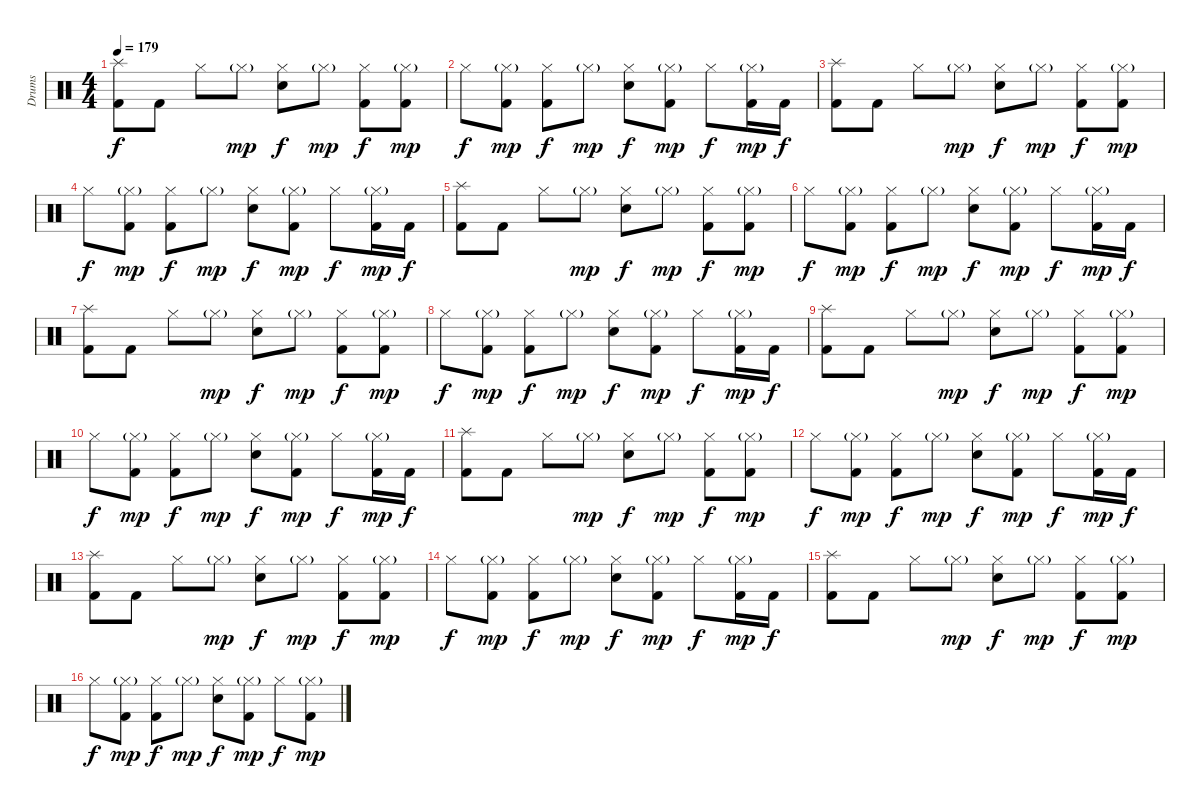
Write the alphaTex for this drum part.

\track ("Drums" "Drums") {instrument percussion}
\staff {score}
\articulation defaults
\ts (4 4)
\tempo 179
\clef neutral
\ks c
("Splash (hit)" "Kick (hit) 2").8{dy f} "Kick (hit) 2".8 "Hi-Hat (closed)".8 "Hi-Hat (closed)"{g}.8{dy mp} ("Hi-Hat (closed)" "Snare (hit) 2").8{dy f} "Hi-Hat (closed)"{g}.8{dy mp} ("Hi-Hat (closed)" "Kick (hit) 2").8{dy f} ("Hi-Hat (closed)"{g} "Kick (hit) 2").8{dy mp} |
"Hi-Hat (closed)".8{dy f} ("Hi-Hat (closed)"{g} "Kick (hit) 2").8{dy mp} ("Hi-Hat (closed)" "Kick (hit) 2").8{dy f} "Hi-Hat (closed)"{g}.8{dy mp} ("Hi-Hat (closed)" "Snare (hit) 2").8{dy f} ("Hi-Hat (closed)"{g} "Kick (hit) 2").8{dy mp} "Hi-Hat (closed)".8{dy f} ("Hi-Hat (closed)"{g} "Kick (hit) 2").16{dy mp} "Kick (hit) 2".16{dy f} |
("Splash (hit)" "Kick (hit) 2").8 "Kick (hit) 2".8 "Hi-Hat (closed)".8 "Hi-Hat (closed)"{g}.8{dy mp} ("Hi-Hat (closed)" "Snare (hit) 2").8{dy f} "Hi-Hat (closed)"{g}.8{dy mp} ("Hi-Hat (closed)" "Kick (hit) 2").8{dy f} ("Hi-Hat (closed)"{g} "Kick (hit) 2").8{dy mp} |
"Hi-Hat (closed)".8{dy f} ("Hi-Hat (closed)"{g} "Kick (hit) 2").8{dy mp} ("Hi-Hat (closed)" "Kick (hit) 2").8{dy f} "Hi-Hat (closed)"{g}.8{dy mp} ("Hi-Hat (closed)" "Snare (hit) 2").8{dy f} ("Hi-Hat (closed)"{g} "Kick (hit) 2").8{dy mp} "Hi-Hat (closed)".8{dy f} ("Hi-Hat (closed)"{g} "Kick (hit) 2").16{dy mp} "Kick (hit) 2".16{dy f} |
("Splash (hit)" "Kick (hit) 2").8 "Kick (hit) 2".8 "Hi-Hat (closed)".8 "Hi-Hat (closed)"{g}.8{dy mp} ("Hi-Hat (closed)" "Snare (hit) 2").8{dy f} "Hi-Hat (closed)"{g}.8{dy mp} ("Hi-Hat (closed)" "Kick (hit) 2").8{dy f} ("Hi-Hat (closed)"{g} "Kick (hit) 2").8{dy mp} |
"Hi-Hat (closed)".8{dy f} ("Hi-Hat (closed)"{g} "Kick (hit) 2").8{dy mp} ("Hi-Hat (closed)" "Kick (hit) 2").8{dy f} "Hi-Hat (closed)"{g}.8{dy mp} ("Hi-Hat (closed)" "Snare (hit) 2").8{dy f} ("Hi-Hat (closed)"{g} "Kick (hit) 2").8{dy mp} "Hi-Hat (closed)".8{dy f} ("Hi-Hat (closed)"{g} "Kick (hit) 2").16{dy mp} "Kick (hit) 2".16{dy f} |
("Splash (hit)" "Kick (hit) 2").8 "Kick (hit) 2".8 "Hi-Hat (closed)".8 "Hi-Hat (closed)"{g}.8{dy mp} ("Hi-Hat (closed)" "Snare (hit) 2").8{dy f} "Hi-Hat (closed)"{g}.8{dy mp} ("Hi-Hat (closed)" "Kick (hit) 2").8{dy f} ("Hi-Hat (closed)"{g} "Kick (hit) 2").8{dy mp} |
"Hi-Hat (closed)".8{dy f} ("Hi-Hat (closed)"{g} "Kick (hit) 2").8{dy mp} ("Hi-Hat (closed)" "Kick (hit) 2").8{dy f} "Hi-Hat (closed)"{g}.8{dy mp} ("Hi-Hat (closed)" "Snare (hit) 2").8{dy f} ("Hi-Hat (closed)"{g} "Kick (hit) 2").8{dy mp} "Hi-Hat (closed)".8{dy f} ("Hi-Hat (closed)"{g} "Kick (hit) 2").16{dy mp} "Kick (hit) 2".16{dy f} |
("Splash (hit)" "Kick (hit) 2").8 "Kick (hit) 2".8 "Hi-Hat (closed)".8 "Hi-Hat (closed)"{g}.8{dy mp} ("Hi-Hat (closed)" "Snare (hit) 2").8{dy f} "Hi-Hat (closed)"{g}.8{dy mp} ("Hi-Hat (closed)" "Kick (hit) 2").8{dy f} ("Hi-Hat (closed)"{g} "Kick (hit) 2").8{dy mp} |
"Hi-Hat (closed)".8{dy f} ("Hi-Hat (closed)"{g} "Kick (hit) 2").8{dy mp} ("Hi-Hat (closed)" "Kick (hit) 2").8{dy f} "Hi-Hat (closed)"{g}.8{dy mp} ("Hi-Hat (closed)" "Snare (hit) 2").8{dy f} ("Hi-Hat (closed)"{g} "Kick (hit) 2").8{dy mp} "Hi-Hat (closed)".8{dy f} ("Hi-Hat (closed)"{g} "Kick (hit) 2").16{dy mp} "Kick (hit) 2".16{dy f} |
("Splash (hit)" "Kick (hit) 2").8 "Kick (hit) 2".8 "Hi-Hat (closed)".8 "Hi-Hat (closed)"{g}.8{dy mp} ("Hi-Hat (closed)" "Snare (hit) 2").8{dy f} "Hi-Hat (closed)"{g}.8{dy mp} ("Hi-Hat (closed)" "Kick (hit) 2").8{dy f} ("Hi-Hat (closed)"{g} "Kick (hit) 2").8{dy mp} |
"Hi-Hat (closed)".8{dy f} ("Hi-Hat (closed)"{g} "Kick (hit) 2").8{dy mp} ("Hi-Hat (closed)" "Kick (hit) 2").8{dy f} "Hi-Hat (closed)"{g}.8{dy mp} ("Hi-Hat (closed)" "Snare (hit) 2").8{dy f} ("Hi-Hat (closed)"{g} "Kick (hit) 2").8{dy mp} "Hi-Hat (closed)".8{dy f} ("Hi-Hat (closed)"{g} "Kick (hit) 2").16{dy mp} "Kick (hit) 2".16{dy f} |
("Splash (hit)" "Kick (hit) 2").8 "Kick (hit) 2".8 "Hi-Hat (closed)".8 "Hi-Hat (closed)"{g}.8{dy mp} ("Hi-Hat (closed)" "Snare (hit) 2").8{dy f} "Hi-Hat (closed)"{g}.8{dy mp} ("Hi-Hat (closed)" "Kick (hit) 2").8{dy f} ("Hi-Hat (closed)"{g} "Kick (hit) 2").8{dy mp} |
"Hi-Hat (closed)".8{dy f} ("Hi-Hat (closed)"{g} "Kick (hit) 2").8{dy mp} ("Hi-Hat (closed)" "Kick (hit) 2").8{dy f} "Hi-Hat (closed)"{g}.8{dy mp} ("Hi-Hat (closed)" "Snare (hit) 2").8{dy f} ("Hi-Hat (closed)"{g} "Kick (hit) 2").8{dy mp} "Hi-Hat (closed)".8{dy f} ("Hi-Hat (closed)"{g} "Kick (hit) 2").16{dy mp} "Kick (hit) 2".16{dy f} |
("Splash (hit)" "Kick (hit) 2").8 "Kick (hit) 2".8 "Hi-Hat (closed)".8 "Hi-Hat (closed)"{g}.8{dy mp} ("Hi-Hat (closed)" "Snare (hit) 2").8{dy f} "Hi-Hat (closed)"{g}.8{dy mp} ("Hi-Hat (closed)" "Kick (hit) 2").8{dy f} ("Hi-Hat (closed)"{g} "Kick (hit) 2").8{dy mp} |
"Hi-Hat (closed)".8{dy f} ("Hi-Hat (closed)"{g} "Kick (hit) 2").8{dy mp} ("Hi-Hat (closed)" "Kick (hit) 2").8{dy f} "Hi-Hat (closed)"{g}.8{dy mp} ("Hi-Hat (closed)" "Snare (hit) 2").8{dy f} ("Hi-Hat (closed)"{g} "Kick (hit) 2").8{dy mp} "Hi-Hat (closed)".8{dy f} ("Hi-Hat (closed)"{g} "Kick (hit) 2").8{dy mp}
